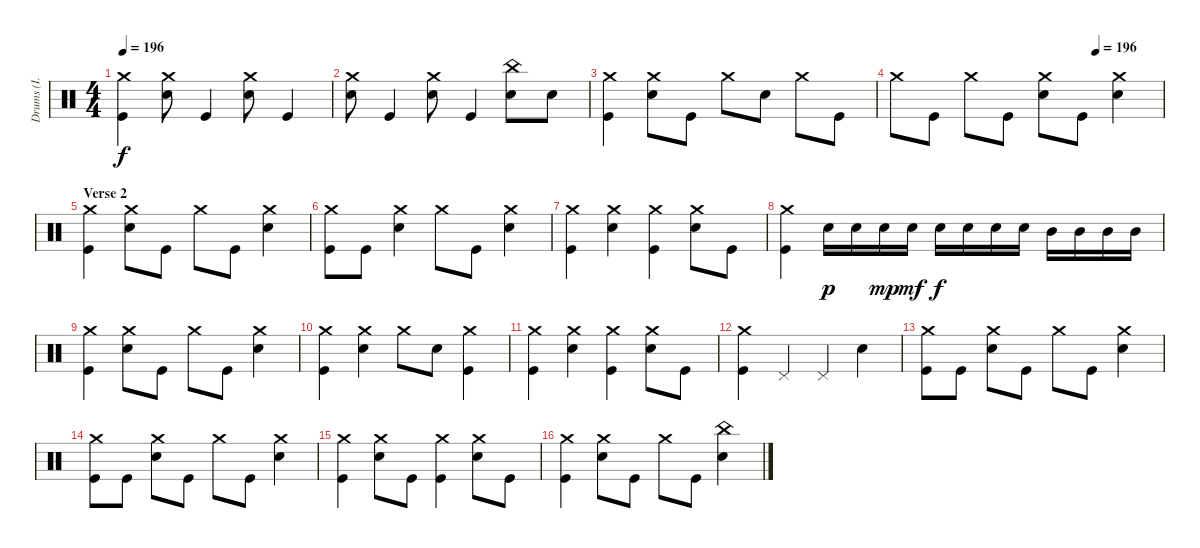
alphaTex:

\track ("Drums (I. Paice)" "Drums (I. ") {instrument percussion}
\staff {score}
\articulation defaults
\ts (4 4)
\tempo 196
\clef neutral
\ks c
("Crash medium (hit)" "Kick (hit)").4{dy f} ("Crash medium (hit)" "Electric Snare (hit)").8 "Kick (hit)".4 ("Crash medium (hit)" "Electric Snare (hit)").8 "Kick (hit)".4 |
("Crash medium (hit)" "Electric Snare (hit)").8 "Kick (hit)".4 ("Crash medium (hit)" "Electric Snare (hit)").8 "Kick (hit)".4 ("China (hit)" "Electric Snare (hit)").8 "Electric Snare (hit)".8 |
("Crash medium (hit)" "Kick (hit)").4 ("Crash medium (hit)" "Electric Snare (hit)").8 "Kick (hit)".8 "Crash medium (hit)".8 "Electric Snare (hit)".8 "Crash medium (hit)".8 "Kick (hit)".8 |
\tempo (196 0.75)
"Crash medium (hit)".8 "Kick (hit)".8 "Crash medium (hit)".8 "Kick (hit)".8 ("Crash medium (hit)" "Electric Snare (hit)").8 "Kick (hit)".8 ("Crash medium (hit)" "Electric Snare (hit)").4 |
\section ("" "Verse 2")
("Crash medium (hit)" "Kick (hit)").4 ("Crash medium (hit)" "Electric Snare (hit)").8 "Kick (hit)".8 "Crash medium (hit)".8 "Kick (hit)".8 ("Crash medium (hit)" "Electric Snare (hit)").4 |
("Crash medium (hit)" "Kick (hit)").8 "Kick (hit)".8 ("Crash medium (hit)" "Electric Snare (hit)").4 "Crash medium (hit)".8 "Kick (hit)".8 ("Crash medium (hit)" "Electric Snare (hit)").4 |
("Crash medium (hit)" "Kick (hit)").4 ("Crash medium (hit)" "Electric Snare (hit)").4 ("Crash medium (hit)" "Kick (hit)").4 ("Crash medium (hit)" "Electric Snare (hit)").8 "Kick (hit)".8 |
("Crash medium (hit)" "Kick (hit)").4 "Electric Snare (hit)".16{dy p} "Electric Snare (hit)".16 "Electric Snare (hit)".16{dy mp} "Electric Snare (hit)".16{dy mf} "Electric Snare (hit)".16{dy f} "Electric Snare (hit)".16 "Electric Snare (hit)".16 "Electric Snare (hit)".16 "Mid Tom (hit)".16 "Mid Tom (hit)".16 "Mid Tom (hit)".16 "Mid Tom (hit)".16 |
("Crash medium (hit)" "Kick (hit)").4 ("Crash medium (hit)" "Electric Snare (hit)").8 "Kick (hit)".8 "Crash medium (hit)".8 "Kick (hit)".8 ("Crash medium (hit)" "Electric Snare (hit)").4 |
("Crash medium (hit)" "Kick (hit)").4 ("Crash medium (hit)" "Electric Snare (hit)").4 "Crash medium (hit)".8 "Electric Snare (hit)".8 ("Crash medium (hit)" "Kick (hit)").4 |
("Crash medium (hit)" "Kick (hit)").4 ("Crash medium (hit)" "Electric Snare (hit)").4 ("Crash medium (hit)" "Kick (hit)").4 ("Crash medium (hit)" "Electric Snare (hit)").8 "Kick (hit)".8 |
("Crash medium (hit)" "Kick (hit)").4 "Pedal Hi-Hat (hit)".4 "Pedal Hi-Hat (hit)".4 "Electric Snare (hit)".4 |
("Crash medium (hit)" "Kick (hit)").8 "Kick (hit)".8 ("Crash medium (hit)" "Electric Snare (hit)").8 "Kick (hit)".8 "Crash medium (hit)".8 "Kick (hit)".8 ("Crash medium (hit)" "Electric Snare (hit)").4 |
("Crash medium (hit)" "Kick (hit)").8 "Kick (hit)".8 ("Crash medium (hit)" "Electric Snare (hit)").8 "Kick (hit)".8 "Crash medium (hit)".8 "Kick (hit)".8 ("Crash medium (hit)" "Electric Snare (hit)").4 |
("Crash medium (hit)" "Kick (hit)").4 ("Crash medium (hit)" "Electric Snare (hit)").8 "Kick (hit)".8 ("Crash medium (hit)" "Kick (hit)").4 ("Crash medium (hit)" "Electric Snare (hit)").8 "Kick (hit)".8 |
("Crash medium (hit)" "Kick (hit)").4 ("Crash medium (hit)" "Electric Snare (hit)").8 "Kick (hit)".8 "Crash medium (hit)".8 "Kick (hit)".8 ("China (hit)" "Electric Snare (hit)").4
